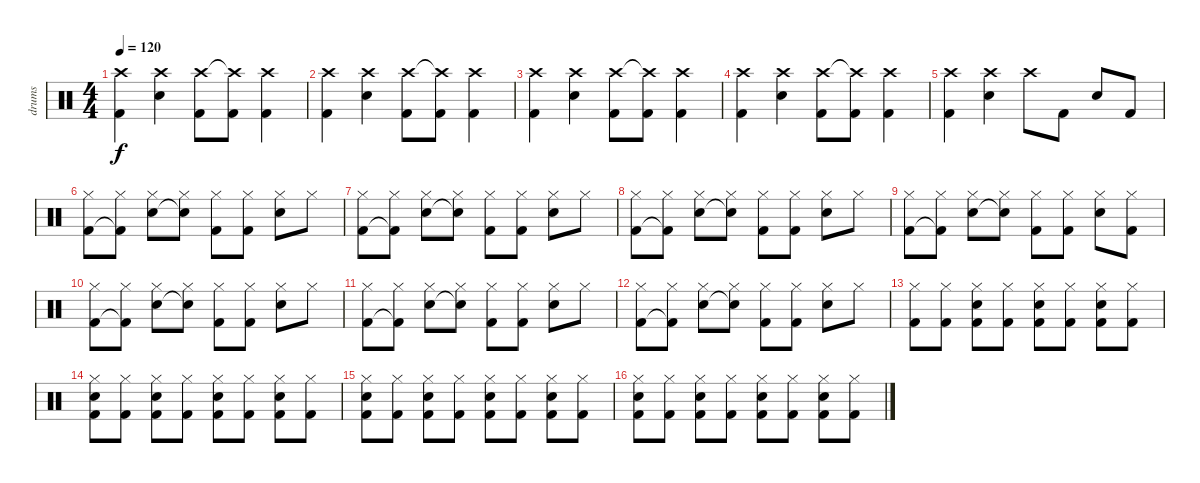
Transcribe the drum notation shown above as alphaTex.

\track ("drums" "drums") {instrument percussion}
\staff {score}
\articulation defaults
\ts (4 4)
\tempo 120
\clef neutral
\ks c
("Crash high (hit)" "Kick (hit) 2").4{dy f} ("Crash high (hit)" "Snare (hit) 2").4 ("Crash high (hit)" "Kick (hit) 2").8 ("Crash high (hit)"{t} "Kick (hit) 2").8 ("Crash high (hit)" "Kick (hit) 2").4 |
("Crash high (hit)" "Kick (hit) 2").4 ("Crash high (hit)" "Snare (hit) 2").4 ("Crash high (hit)" "Kick (hit) 2").8 ("Crash high (hit)"{t} "Kick (hit) 2").8 ("Crash high (hit)" "Kick (hit) 2").4 |
("Crash high (hit)" "Kick (hit) 2").4 ("Crash high (hit)" "Snare (hit) 2").4 ("Crash high (hit)" "Kick (hit) 2").8 ("Crash high (hit)"{t} "Kick (hit) 2").8 ("Crash high (hit)" "Kick (hit) 2").4 |
("Crash high (hit)" "Kick (hit) 2").4 ("Crash high (hit)" "Snare (hit) 2").4 ("Crash high (hit)" "Kick (hit) 2").8 ("Crash high (hit)"{t} "Kick (hit) 2").8 ("Crash high (hit)" "Kick (hit) 2").4 |
("Crash high (hit)" "Kick (hit) 2").4 ("Crash high (hit)" "Snare (hit) 2").4 "Crash high (hit)".8 "Kick (hit) 2".8 "Snare (hit) 2".8 "Kick (hit) 2".8 |
("Hi-Hat (closed)" "Kick (hit) 2").8 ("Hi-Hat (closed)" "Kick (hit) 2"{t}).8 ("Hi-Hat (closed)" "Snare (hit) 2").8 ("Hi-Hat (closed)" "Snare (hit) 2"{t}).8 ("Hi-Hat (closed)" "Kick (hit) 2").8 ("Hi-Hat (closed)" "Kick (hit) 2").8 ("Hi-Hat (closed)" "Snare (hit) 2").8 "Hi-Hat (closed)".8 |
("Hi-Hat (closed)" "Kick (hit) 2").8 ("Hi-Hat (closed)" "Kick (hit) 2"{t}).8 ("Hi-Hat (closed)" "Snare (hit) 2").8 ("Hi-Hat (closed)" "Snare (hit) 2"{t}).8 ("Hi-Hat (closed)" "Kick (hit) 2").8 ("Hi-Hat (closed)" "Kick (hit) 2").8 ("Hi-Hat (closed)" "Snare (hit) 2").8 "Hi-Hat (closed)".8 |
("Hi-Hat (closed)" "Kick (hit) 2").8 ("Hi-Hat (closed)" "Kick (hit) 2"{t}).8 ("Hi-Hat (closed)" "Snare (hit) 2").8 ("Hi-Hat (closed)" "Snare (hit) 2"{t}).8 ("Hi-Hat (closed)" "Kick (hit) 2").8 ("Hi-Hat (closed)" "Kick (hit) 2").8 ("Hi-Hat (closed)" "Snare (hit) 2").8 "Hi-Hat (closed)".8 |
("Hi-Hat (closed)" "Kick (hit) 2").8 ("Hi-Hat (closed)" "Kick (hit) 2"{t}).8 ("Hi-Hat (closed)" "Snare (hit) 2").8 ("Hi-Hat (closed)" "Snare (hit) 2"{t}).8 ("Hi-Hat (closed)" "Kick (hit) 2").8 ("Hi-Hat (closed)" "Kick (hit) 2").8 ("Hi-Hat (closed)" "Snare (hit) 2").8 ("Hi-Hat (closed)" "Kick (hit) 2").8 |
("Hi-Hat (closed)" "Kick (hit) 2").8 ("Hi-Hat (closed)" "Kick (hit) 2"{t}).8 ("Hi-Hat (closed)" "Snare (hit) 2").8 ("Hi-Hat (closed)" "Snare (hit) 2"{t}).8 ("Hi-Hat (closed)" "Kick (hit) 2").8 ("Hi-Hat (closed)" "Kick (hit) 2").8 ("Hi-Hat (closed)" "Snare (hit) 2").8 "Hi-Hat (closed)".8 |
("Hi-Hat (closed)" "Kick (hit) 2").8 ("Hi-Hat (closed)" "Kick (hit) 2"{t}).8 ("Hi-Hat (closed)" "Snare (hit) 2").8 ("Hi-Hat (closed)" "Snare (hit) 2"{t}).8 ("Hi-Hat (closed)" "Kick (hit) 2").8 ("Hi-Hat (closed)" "Kick (hit) 2").8 ("Hi-Hat (closed)" "Snare (hit) 2").8 "Hi-Hat (closed)".8 |
("Hi-Hat (closed)" "Kick (hit) 2").8 ("Hi-Hat (closed)" "Kick (hit) 2"{t}).8 ("Hi-Hat (closed)" "Snare (hit) 2").8 ("Hi-Hat (closed)" "Snare (hit) 2"{t}).8 ("Hi-Hat (closed)" "Kick (hit) 2").8 ("Hi-Hat (closed)" "Kick (hit) 2").8 ("Hi-Hat (closed)" "Snare (hit) 2").8 "Hi-Hat (closed)".8 |
("Hi-Hat (closed)" "Kick (hit) 2").8 ("Hi-Hat (closed)" "Kick (hit) 2").8 ("Hi-Hat (closed)" "Snare (hit) 2" "Kick (hit) 2").8 ("Hi-Hat (closed)" "Kick (hit) 2").8 ("Hi-Hat (closed)" "Snare (hit) 2" "Kick (hit) 2").8 ("Hi-Hat (closed)" "Kick (hit) 2").8 ("Hi-Hat (closed)" "Snare (hit) 2" "Kick (hit) 2").8 ("Hi-Hat (closed)" "Kick (hit) 2").8 |
("Hi-Hat (closed)" "Snare (hit) 2" "Kick (hit) 2").8 ("Hi-Hat (closed)" "Kick (hit) 2").8 ("Hi-Hat (closed)" "Snare (hit) 2" "Kick (hit) 2").8 ("Hi-Hat (closed)" "Kick (hit) 2").8 ("Hi-Hat (closed)" "Snare (hit) 2" "Kick (hit) 2").8 ("Hi-Hat (closed)" "Kick (hit) 2").8 ("Hi-Hat (closed)" "Snare (hit) 2" "Kick (hit) 2").8 ("Hi-Hat (closed)" "Kick (hit) 2").8 |
("Hi-Hat (closed)" "Snare (hit) 2" "Kick (hit) 2").8 ("Hi-Hat (closed)" "Kick (hit) 2").8 ("Hi-Hat (closed)" "Snare (hit) 2" "Kick (hit) 2").8 ("Hi-Hat (closed)" "Kick (hit) 2").8 ("Hi-Hat (closed)" "Snare (hit) 2" "Kick (hit) 2").8 ("Hi-Hat (closed)" "Kick (hit) 2").8 ("Hi-Hat (closed)" "Snare (hit) 2" "Kick (hit) 2").8 ("Hi-Hat (closed)" "Kick (hit) 2").8 |
("Hi-Hat (closed)" "Snare (hit) 2" "Kick (hit) 2").8 ("Hi-Hat (closed)" "Kick (hit) 2").8 ("Hi-Hat (closed)" "Snare (hit) 2" "Kick (hit) 2").8 ("Hi-Hat (closed)" "Kick (hit) 2").8 ("Hi-Hat (closed)" "Snare (hit) 2" "Kick (hit) 2").8 ("Hi-Hat (closed)" "Kick (hit) 2").8 ("Hi-Hat (closed)" "Snare (hit) 2" "Kick (hit) 2").8 ("Hi-Hat (closed)" "Kick (hit) 2").8
